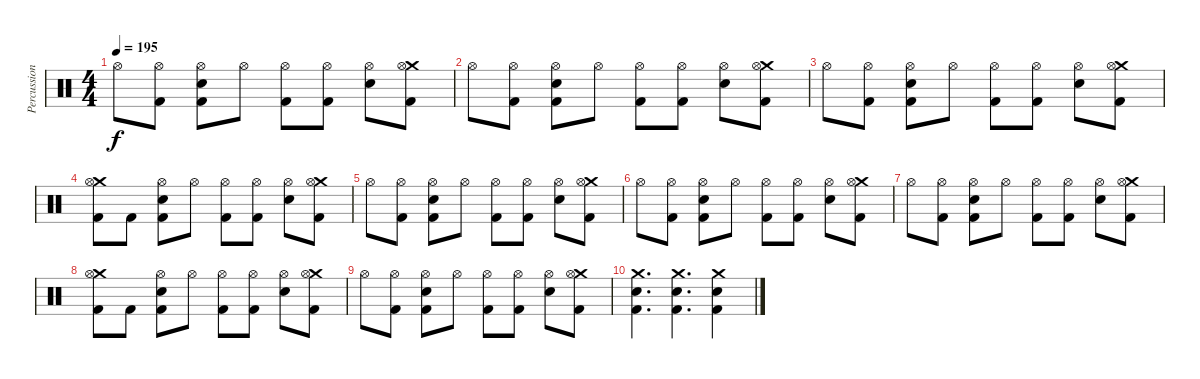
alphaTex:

\track ("Percussion" "Percussion") {instrument percussion}
\staff {score}
\articulation defaults
\ts (4 4)
\tempo 195
\clef neutral
\ks c "Hi-Hat (open)".8{dy f}
("Hi-Hat (open)" "Kick (hit) 2").8 ("Hi-Hat (open)" "Snare (hit) 2" "Kick (hit) 2").8 "Hi-Hat (open)".8 ("Hi-Hat (open)" "Kick (hit) 2").8 ("Hi-Hat (open)" "Kick (hit) 2").8 ("Hi-Hat (open)" "Snare (hit) 2").8 ("Crash medium (hit)" "Hi-Hat (open)" "Kick (hit) 2").8 |
"Hi-Hat (open)".8 ("Hi-Hat (open)" "Kick (hit) 2").8 ("Hi-Hat (open)" "Snare (hit) 2" "Kick (hit) 2").8 "Hi-Hat (open)".8 ("Hi-Hat (open)" "Kick (hit) 2").8 ("Hi-Hat (open)" "Kick (hit) 2").8 ("Hi-Hat (open)" "Snare (hit) 2").8 ("Crash medium (hit)" "Hi-Hat (open)" "Kick (hit) 2").8 |
"Hi-Hat (open)".8 ("Hi-Hat (open)" "Kick (hit) 2").8 ("Hi-Hat (open)" "Snare (hit) 2" "Kick (hit) 2").8 "Hi-Hat (open)".8 ("Hi-Hat (open)" "Kick (hit) 2").8 ("Hi-Hat (open)" "Kick (hit) 2").8 ("Hi-Hat (open)" "Snare (hit) 2").8 ("Crash medium (hit)" "Hi-Hat (open)" "Kick (hit) 2").8 |
("Crash medium (hit)" "Hi-Hat (open)" "Kick (hit) 2").8 "Kick (hit) 2".8 ("Hi-Hat (open)" "Snare (hit) 2" "Kick (hit) 2").8 "Hi-Hat (open)".8 ("Hi-Hat (open)" "Kick (hit) 2").8 ("Hi-Hat (open)" "Kick (hit) 2").8 ("Hi-Hat (open)" "Snare (hit) 2").8 ("Crash medium (hit)" "Hi-Hat (open)" "Kick (hit) 2").8 |
"Hi-Hat (open)".8 ("Hi-Hat (open)" "Kick (hit) 2").8 ("Hi-Hat (open)" "Snare (hit) 2" "Kick (hit) 2").8 "Hi-Hat (open)".8 ("Hi-Hat (open)" "Kick (hit) 2").8 ("Hi-Hat (open)" "Kick (hit) 2").8 ("Hi-Hat (open)" "Snare (hit) 2").8 ("Crash medium (hit)" "Hi-Hat (open)" "Kick (hit) 2").8 |
"Hi-Hat (open)".8 ("Hi-Hat (open)" "Kick (hit) 2").8 ("Hi-Hat (open)" "Snare (hit) 2" "Kick (hit) 2").8 "Hi-Hat (open)".8 ("Hi-Hat (open)" "Kick (hit) 2").8 ("Hi-Hat (open)" "Kick (hit) 2").8 ("Hi-Hat (open)" "Snare (hit) 2").8 ("Crash medium (hit)" "Hi-Hat (open)" "Kick (hit) 2").8 |
"Hi-Hat (open)".8 ("Hi-Hat (open)" "Kick (hit) 2").8 ("Hi-Hat (open)" "Snare (hit) 2" "Kick (hit) 2").8 "Hi-Hat (open)".8 ("Hi-Hat (open)" "Kick (hit) 2").8 ("Hi-Hat (open)" "Kick (hit) 2").8 ("Hi-Hat (open)" "Snare (hit) 2").8 ("Crash medium (hit)" "Hi-Hat (open)" "Kick (hit) 2").8 |
("Crash medium (hit)" "Hi-Hat (open)" "Kick (hit) 2").8 "Kick (hit) 2".8 ("Hi-Hat (open)" "Snare (hit) 2" "Kick (hit) 2").8 "Hi-Hat (open)".8 ("Hi-Hat (open)" "Kick (hit) 2").8 ("Hi-Hat (open)" "Kick (hit) 2").8 ("Hi-Hat (open)" "Snare (hit) 2").8 ("Crash medium (hit)" "Hi-Hat (open)" "Kick (hit) 2").8 |
"Hi-Hat (open)".8 ("Hi-Hat (open)" "Kick (hit) 2").8 ("Hi-Hat (open)" "Snare (hit) 2" "Kick (hit) 2").8 "Hi-Hat (open)".8 ("Hi-Hat (open)" "Kick (hit) 2").8 ("Hi-Hat (open)" "Kick (hit) 2").8 ("Hi-Hat (open)" "Snare (hit) 2").8 ("Crash medium (hit)" "Hi-Hat (open)" "Kick (hit) 2").8 |
("Crash medium (hit)" "Snare (hit) 2" "Kick (hit) 2").4{d} ("Crash medium (hit)" "Snare (hit) 2" "Kick (hit) 2").4{d} ("Crash medium (hit)" "Snare (hit) 2" "Kick (hit) 2").4
